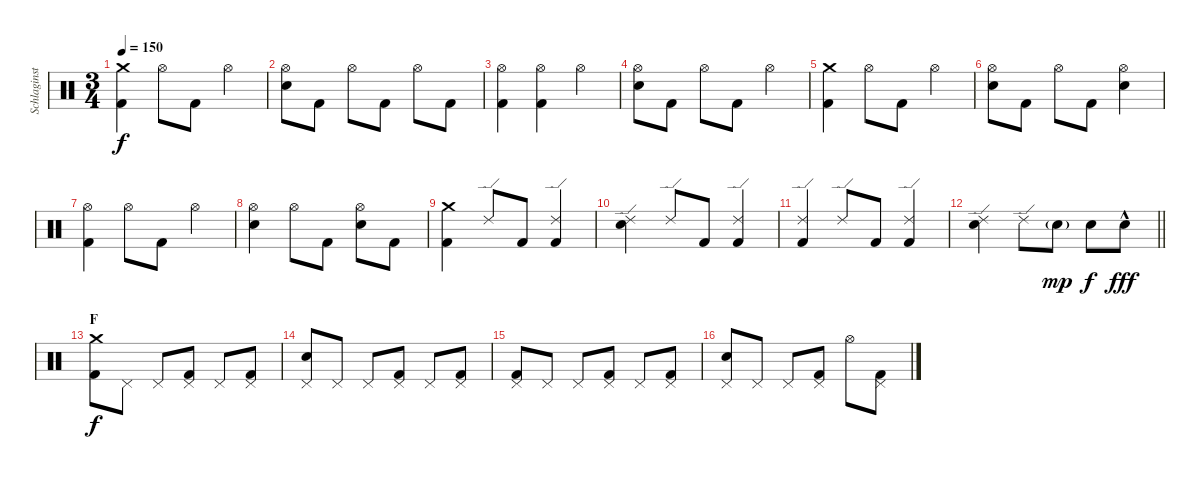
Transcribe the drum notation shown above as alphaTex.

\track ("Schlaginstrumente - Auswahl" "Schlaginst") {instrument percussion}
\staff {score}
\articulation defaults
\ts (3 4)
\section ("" "")
\tempo 150
\clef neutral
\ks c
("Crash medium (hit)" "Kick (hit) 2").4{dy f} "Hi-Hat (open)".8 "Kick (hit) 2".8 "Hi-Hat (open)".4 |
("Hi-Hat (open)" "Electric Snare (hit)").8 "Kick (hit) 2".8 "Hi-Hat (open)".8 "Kick (hit) 2".8 "Hi-Hat (open)".8 "Kick (hit) 2".8 |
("Hi-Hat (open)" "Kick (hit) 2").4 ("Hi-Hat (open)" "Kick (hit) 2").4 "Hi-Hat (open)".4 |
("Hi-Hat (open)" "Electric Snare (hit)").8 "Kick (hit) 2".8 "Hi-Hat (open)".8 "Kick (hit) 2".8 "Hi-Hat (open)".4 |
("Crash medium (hit)" "Kick (hit) 2").4 "Hi-Hat (open)".8 "Kick (hit) 2".8 "Hi-Hat (open)".4 |
("Hi-Hat (open)" "Electric Snare (hit)").8 "Kick (hit) 2".8 "Hi-Hat (open)".8 "Kick (hit) 2".8 ("Hi-Hat (open)" "Electric Snare (hit)").4 |
("Hi-Hat (open)" "Kick (hit) 2").4 "Hi-Hat (open)".8 "Kick (hit) 2".8 "Hi-Hat (open)".4 |
("Hi-Hat (open)" "Electric Snare (hit)").4 "Hi-Hat (open)".8 "Kick (hit) 2".8 ("Hi-Hat (open)" "Electric Snare (hit)").8 "Kick (hit) 2".8 |
("Crash medium (hit)" "Kick (hit) 2").4 "Ride (edge) 2".8 "Kick (hit) 2".8 ("Ride (edge) 2" "Kick (hit) 2").4 |
("Ride (edge) 2" "Electric Snare (hit)").4 "Ride (edge) 2".8 "Kick (hit) 2".8 ("Ride (edge) 2" "Kick (hit) 2").4 |
("Ride (edge) 2" "Kick (hit) 2").4 "Ride (edge) 2".8 "Kick (hit) 2".8 ("Ride (edge) 2" "Kick (hit) 2").4 |
\barLineRight lightlight
("Ride (edge) 2" "Electric Snare (hit)").4 "Ride (edge) 2".8 "Electric Snare (hit)"{g}.8{dy mp} "Electric Snare (hit)".8{dy f} "Electric Snare (hit)"{hac}.8{dy fff} |
\section ("" "F")
("Crash medium (hit)" "Kick (hit) 2").8{dy f} "Pedal Hi-Hat (hit)".8 "Pedal Hi-Hat (hit)".8 ("Pedal Hi-Hat (hit)" "Kick (hit) 2").8 "Pedal Hi-Hat (hit)".8 ("Pedal Hi-Hat (hit)" "Kick (hit) 2").8 |
("Pedal Hi-Hat (hit)" "Electric Snare (hit)").8 "Pedal Hi-Hat (hit)".8 "Pedal Hi-Hat (hit)".8 ("Pedal Hi-Hat (hit)" "Kick (hit) 2").8 "Pedal Hi-Hat (hit)".8 ("Pedal Hi-Hat (hit)" "Kick (hit) 2").8 |
("Pedal Hi-Hat (hit)" "Kick (hit) 2").8 "Pedal Hi-Hat (hit)".8 "Pedal Hi-Hat (hit)".8 ("Pedal Hi-Hat (hit)" "Kick (hit) 2").8 "Pedal Hi-Hat (hit)".8 ("Pedal Hi-Hat (hit)" "Kick (hit) 2").8 |
("Pedal Hi-Hat (hit)" "Electric Snare (hit)").8 "Pedal Hi-Hat (hit)".8 "Pedal Hi-Hat (hit)".8 ("Pedal Hi-Hat (hit)" "Kick (hit) 2").8 "Hi-Hat (open)".8 ("Pedal Hi-Hat (hit)" "Kick (hit) 2").8
